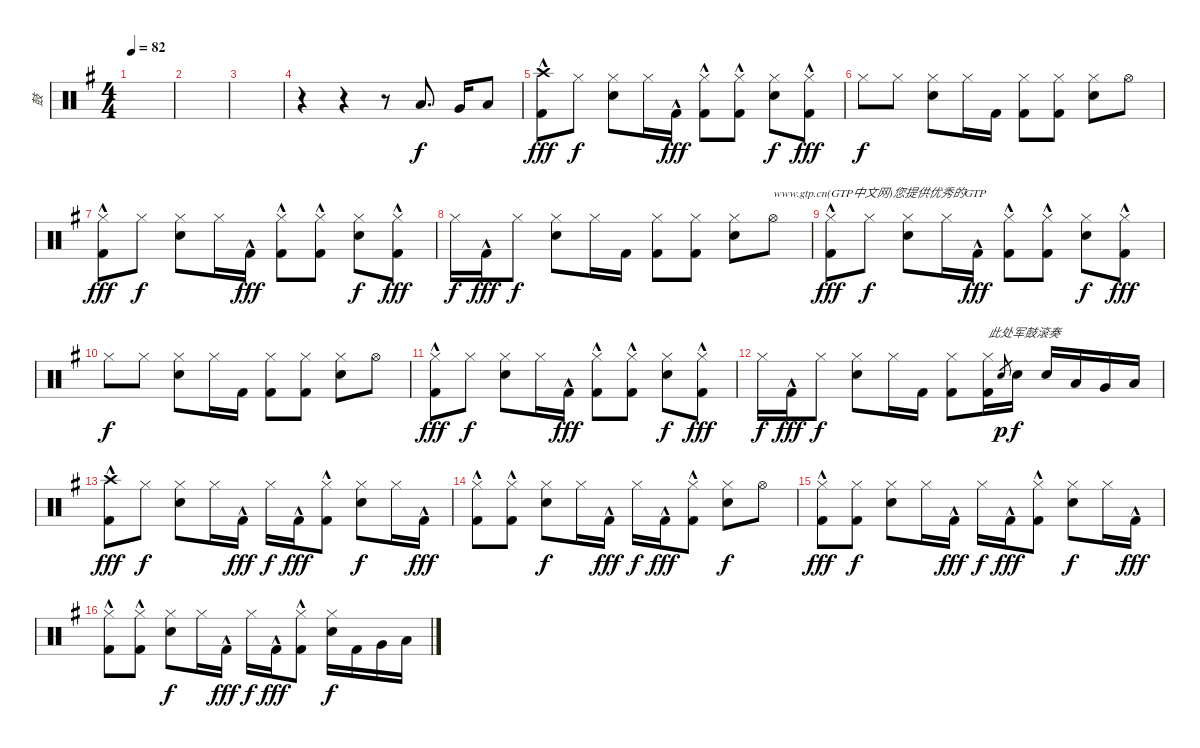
\track ("鼓" "鼓") {instrument percussion}
\staff {score}
\articulation defaults
\ts (4 4)
\tempo 82
\clef neutral
\ks g
|
|
|
r.4 r.4 r.8 "Low Tom (hit)".8{d} "Very Low Tom (hit)".16 "Low Floor Tom (hit)".8 |
("Crash high (hit)" "Kick (hit) 2"{hac}).8{dy fff} "Hi-Hat (closed)".8{dy f} ("Hi-Hat (closed)" "Electric Snare (hit)").8 "Hi-Hat (closed)".16 "Kick (hit) 2"{hac}.16{dy fff} ("Hi-Hat (closed)" "Kick (hit) 2"{hac}).8 ("Hi-Hat (closed)" "Kick (hit) 2"{hac}).8 ("Hi-Hat (closed)" "Electric Snare (hit)").8{dy f} ("Hi-Hat (closed)" "Kick (hit) 2"{hac}).8{dy fff} |
"Hi-Hat (closed)".8{dy f} "Hi-Hat (closed)".8 ("Hi-Hat (closed)" "Electric Snare (hit)").8 "Hi-Hat (closed)".16 "Kick (hit) 2".16 ("Hi-Hat (closed)" "Kick (hit) 2").8 ("Hi-Hat (closed)" "Kick (hit) 2").8 ("Hi-Hat (closed)" "Electric Snare (hit)").8 "Hi-Hat (open)".8 |
("Hi-Hat (closed)" "Kick (hit) 2"{hac}).8{dy fff} "Hi-Hat (closed)".8{dy f} ("Hi-Hat (closed)" "Electric Snare (hit)").8 "Hi-Hat (closed)".16 "Kick (hit) 2"{hac}.16{dy fff} ("Hi-Hat (closed)" "Kick (hit) 2"{hac}).8 ("Hi-Hat (closed)" "Kick (hit) 2"{hac}).8 ("Hi-Hat (closed)" "Electric Snare (hit)").8{dy f} ("Hi-Hat (closed)" "Kick (hit) 2"{hac}).8{dy fff} |
"Hi-Hat (closed)".16{dy f} "Kick (hit) 2"{hac}.16{dy fff} "Hi-Hat (closed)".8{dy f} ("Hi-Hat (closed)" "Electric Snare (hit)").8 "Hi-Hat (closed)".16 "Kick (hit) 2".16 ("Hi-Hat (closed)" "Kick (hit) 2").8 ("Hi-Hat (closed)" "Kick (hit) 2").8 ("Hi-Hat (closed)" "Electric Snare (hit)").8 "Hi-Hat (open)".8{txt "www.gtp.cn(GTP中文网)您提供优秀的GTP"} |
("Hi-Hat (closed)" "Kick (hit) 2"{hac}).8{dy fff} "Hi-Hat (closed)".8{dy f} ("Hi-Hat (closed)" "Electric Snare (hit)").8 "Hi-Hat (closed)".16 "Kick (hit) 2"{hac}.16{dy fff} ("Hi-Hat (closed)" "Kick (hit) 2"{hac}).8 ("Hi-Hat (closed)" "Kick (hit) 2"{hac}).8 ("Hi-Hat (closed)" "Electric Snare (hit)").8{dy f} ("Hi-Hat (closed)" "Kick (hit) 2"{hac}).8{dy fff} |
"Hi-Hat (closed)".8{dy f} "Hi-Hat (closed)".8 ("Hi-Hat (closed)" "Electric Snare (hit)").8 "Hi-Hat (closed)".16 "Kick (hit) 2".16 ("Hi-Hat (closed)" "Kick (hit) 2").8 ("Hi-Hat (closed)" "Kick (hit) 2").8 ("Hi-Hat (closed)" "Electric Snare (hit)").8 "Hi-Hat (open)".8 |
("Hi-Hat (closed)" "Kick (hit) 2"{hac}).8{dy fff} "Hi-Hat (closed)".8{dy f} ("Hi-Hat (closed)" "Electric Snare (hit)").8 "Hi-Hat (closed)".16 "Kick (hit) 2"{hac}.16{dy fff} ("Hi-Hat (closed)" "Kick (hit) 2"{hac}).8 ("Hi-Hat (closed)" "Kick (hit) 2"{hac}).8 ("Hi-Hat (closed)" "Electric Snare (hit)").8{dy f} ("Hi-Hat (closed)" "Kick (hit) 2"{hac}).8{dy fff} |
"Hi-Hat (closed)".16{dy f} "Kick (hit) 2"{hac}.16{dy fff} "Hi-Hat (closed)".8{dy f} ("Hi-Hat (closed)" "Electric Snare (hit)").8 "Hi-Hat (closed)".16 "Kick (hit) 2".16 ("Hi-Hat (closed)" "Kick (hit) 2").8 ("Hi-Hat (closed)" "Kick (hit) 2").16{txt "此处军鼓滚奏"} "Electric Snare (hit)".8{gr dy p} "Electric Snare (hit)".16{dy f} "Electric Snare (hit)".16 "Low Tom (hit)".16 "Very Low Tom (hit)".16 "Low Floor Tom (hit)".16 |
("Crash high (hit)" "Kick (hit) 2"{hac}).8{dy fff} "Hi-Hat (closed)".8{dy f} ("Hi-Hat (closed)" "Electric Snare (hit)").8 "Hi-Hat (closed)".16 "Kick (hit) 2"{hac}.16{dy fff} "Hi-Hat (closed)".16{dy f} "Kick (hit) 2"{hac}.16{dy fff} ("Hi-Hat (closed)" "Kick (hit) 2"{hac}).8 ("Hi-Hat (closed)" "Electric Snare (hit)").8{dy f} "Hi-Hat (closed)".16 "Kick (hit) 2"{hac}.16{dy fff} |
("Hi-Hat (closed)" "Kick (hit) 2"{hac}).8 ("Hi-Hat (closed)" "Kick (hit) 2"{hac}).8 ("Hi-Hat (closed)" "Electric Snare (hit)").8{dy f} "Hi-Hat (closed)".16 "Kick (hit) 2"{hac}.16{dy fff} "Hi-Hat (closed)".16{dy f} "Kick (hit) 2"{hac}.16{dy fff} ("Hi-Hat (closed)" "Kick (hit) 2"{hac}).8 ("Hi-Hat (closed)" "Electric Snare (hit)").8{dy f} "Hi-Hat (open)".8 |
("Hi-Hat (closed)" "Kick (hit) 2"{hac}).8{dy fff} ("Hi-Hat (closed)" "Kick (hit) 2").8{dy f} ("Hi-Hat (closed)" "Electric Snare (hit)").8 "Hi-Hat (closed)".16 "Kick (hit) 2"{hac}.16{dy fff} "Hi-Hat (closed)".16{dy f} "Kick (hit) 2"{hac}.16{dy fff} ("Hi-Hat (closed)" "Kick (hit) 2"{hac}).8 ("Hi-Hat (closed)" "Electric Snare (hit)").8{dy f} "Hi-Hat (closed)".16 "Kick (hit) 2"{hac}.16{dy fff} |
("Hi-Hat (closed)" "Kick (hit) 2"{hac}).8 ("Hi-Hat (closed)" "Kick (hit) 2"{hac}).8 ("Hi-Hat (closed)" "Electric Snare (hit)").8{dy f} "Hi-Hat (closed)".16 "Kick (hit) 2"{hac}.16{dy fff} "Hi-Hat (closed)".16{dy f} "Kick (hit) 2"{hac}.16{dy fff} ("Hi-Hat (closed)" "Kick (hit) 2"{hac}).8 ("Hi-Hat (closed)" "Electric Snare (hit)").16{dy f} "Kick (hit) 2".16 "Very Low Tom (hit)".16 "Low Floor Tom (hit)".16
